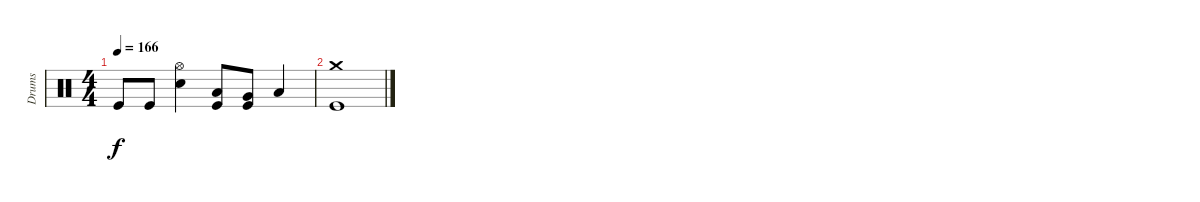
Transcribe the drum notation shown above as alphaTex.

\track ("Drums" "Drums") {instrument percussion}
\staff {score}
\articulation defaults
\ts (4 4)
\tempo 166
\clef neutral
\ks c "Kick (hit)".8{dy f} "Kick (hit)".8
("Hi-Hat (open)" "Electric Snare (hit)").4 ("Low Tom (hit)" "Kick (hit)").8 ("Very Low Tom (hit)" "Kick (hit)").8 "Low Floor Tom (hit)".4 |
("Crash medium (hit)" "Kick (hit)").1
